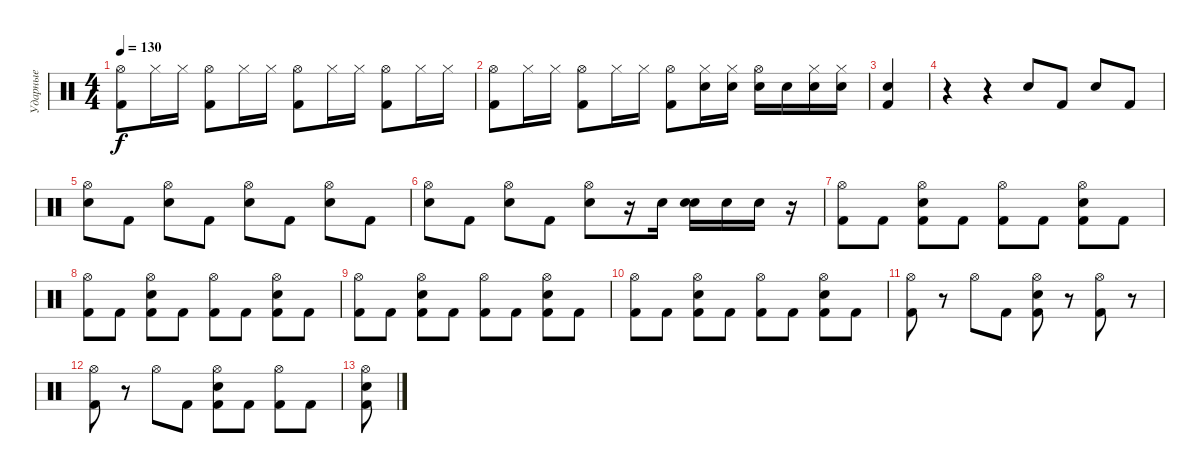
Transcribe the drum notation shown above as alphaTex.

\track ("Ударные" "Ударные") {instrument percussion}
\staff {score}
\articulation defaults
\ts (4 4)
\tempo 130
\clef neutral
\ks c
("Hi-Hat (open)" "Kick (hit) 2").8{dy f} "Hi-Hat (closed)".16 "Hi-Hat (closed)".16 ("Hi-Hat (open)" "Kick (hit) 2").8 "Hi-Hat (closed)".16 "Hi-Hat (closed)".16 ("Hi-Hat (open)" "Kick (hit) 2").8 "Hi-Hat (closed)".16 "Hi-Hat (closed)".16 ("Hi-Hat (open)" "Kick (hit) 2").8 "Hi-Hat (closed)".16 "Hi-Hat (closed)".16 |
("Hi-Hat (open)" "Kick (hit) 2").8 "Hi-Hat (closed)".16 "Hi-Hat (closed)".16 ("Hi-Hat (open)" "Kick (hit) 2").8 "Hi-Hat (closed)".16 "Hi-Hat (closed)".16 ("Hi-Hat (open)" "Kick (hit) 2").8 ("Hi-Hat (closed)" "Snare (hit) 2").16 ("Hi-Hat (closed)" "Snare (hit) 2").16 ("Hi-Hat (open)" "Snare (hit) 2").16 "Snare (hit) 2".16 ("Hi-Hat (closed)" "Snare (hit) 2").16 ("Hi-Hat (closed)" "Snare (hit) 2").16 |
("Snare (hit) 2" "Kick (hit) 2").4 |
r.4 r.4 "Snare (hit) 2".8 "Kick (hit) 2".8 "Snare (hit) 2".8 "Kick (hit) 2".8 |
("Hi-Hat (open)" "Snare (hit) 2").8 "Kick (hit) 2".8 ("Hi-Hat (open)" "Snare (hit) 2").8 "Kick (hit) 2".8 ("Hi-Hat (open)" "Snare (hit) 2").8 "Kick (hit) 2".8 ("Hi-Hat (open)" "Snare (hit) 2").8 "Kick (hit) 2".8 |
("Hi-Hat (open)" "Snare (hit) 2").8 "Kick (hit) 2".8 ("Hi-Hat (open)" "Snare (hit) 2").8 "Kick (hit) 2".8 ("Hi-Hat (open)" "Snare (hit) 2").8 r.16 "Snare (hit) 2".16 ("Snare (hit) 2" "Snare (hit) 2").16 "Snare (hit) 2".16 "Snare (hit) 2".16 r.16 |
("Hi-Hat (open)" "Kick (hit) 2").8 "Kick (hit) 2".8 ("Hi-Hat (open)" "Snare (hit) 2" "Kick (hit) 2").8 "Kick (hit) 2".8 ("Hi-Hat (open)" "Kick (hit) 2").8 "Kick (hit) 2".8 ("Hi-Hat (open)" "Snare (hit) 2" "Kick (hit) 2").8 "Kick (hit) 2".8 |
("Hi-Hat (open)" "Kick (hit) 2").8 "Kick (hit) 2".8 ("Hi-Hat (open)" "Snare (hit) 2" "Kick (hit) 2").8 "Kick (hit) 2".8 ("Hi-Hat (open)" "Kick (hit) 2").8 "Kick (hit) 2".8 ("Hi-Hat (open)" "Snare (hit) 2" "Kick (hit) 2").8 "Kick (hit) 2".8 |
("Hi-Hat (open)" "Kick (hit) 2").8 "Kick (hit) 2".8 ("Hi-Hat (open)" "Snare (hit) 2" "Kick (hit) 2").8 "Kick (hit) 2".8 ("Hi-Hat (open)" "Kick (hit) 2").8 "Kick (hit) 2".8 ("Hi-Hat (open)" "Snare (hit) 2" "Kick (hit) 2").8 "Kick (hit) 2".8 |
("Hi-Hat (open)" "Kick (hit) 2").8 "Kick (hit) 2".8 ("Hi-Hat (open)" "Snare (hit) 2" "Kick (hit) 2").8 "Kick (hit) 2".8 ("Hi-Hat (open)" "Kick (hit) 2").8 "Kick (hit) 2".8 ("Hi-Hat (open)" "Snare (hit) 2" "Kick (hit) 2").8 "Kick (hit) 2".8 |
("Hi-Hat (open)" "Kick (hit) 2").8 r.8 "Hi-Hat (open)".8 "Kick (hit) 2".8 ("Hi-Hat (open)" "Snare (hit) 2" "Kick (hit) 2").8 r.8 ("Hi-Hat (open)" "Kick (hit) 2").8 r.8 |
("Hi-Hat (open)" "Kick (hit) 2").8 r.8 "Hi-Hat (open)".8 "Kick (hit) 2".8 ("Hi-Hat (open)" "Snare (hit) 2" "Kick (hit) 2").8 "Kick (hit) 2".8 ("Hi-Hat (open)" "Kick (hit) 2").8 "Kick (hit) 2".8 |
("Hi-Hat (open)" "Snare (hit) 2" "Kick (hit) 2").8
